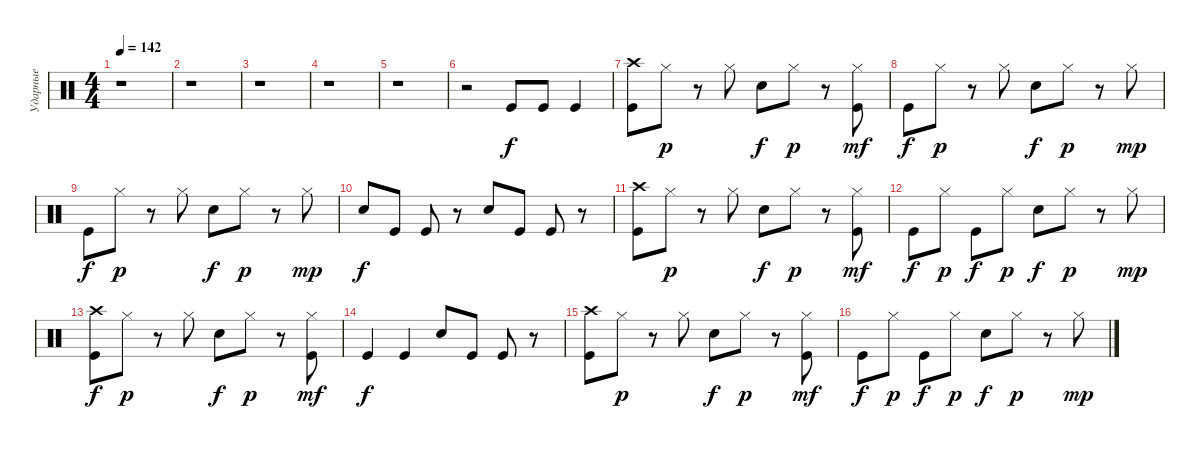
\track ("Ударные" "Ударные") {instrument percussion}
\staff {score}
\articulation defaults
\ts (4 4)
\tempo 142
\clef neutral
\ks c
r.1{dy f} |
r.1 |
r.1 |
r.1 |
r.1 |
r.2 "Kick (hit)".8 "Kick (hit)".8 "Kick (hit)".4 |
("Crash high (hit)" "Kick (hit)").8 "Hi-Hat (closed)".8{dy p} r.8 "Hi-Hat (closed)".8 "Snare (hit) 2".8{dy f} "Hi-Hat (closed)".8{dy p} r.8 ("Hi-Hat (closed)" "Kick (hit)").8{dy mf} |
"Kick (hit)".8{dy f} "Hi-Hat (closed)".8{dy p} r.8 "Hi-Hat (closed)".8 "Snare (hit) 2".8{dy f} "Hi-Hat (closed)".8{dy p} r.8 "Hi-Hat (closed)".8{dy mp} |
"Kick (hit)".8{dy f} "Hi-Hat (closed)".8{dy p} r.8 "Hi-Hat (closed)".8 "Snare (hit) 2".8{dy f} "Hi-Hat (closed)".8{dy p} r.8 "Hi-Hat (closed)".8{dy mp} |
"Electric Snare (hit)".8{dy f} "Kick (hit)".8 "Kick (hit)".8 r.8 "Electric Snare (hit)".8 "Kick (hit)".8 "Kick (hit)".8 r.8 |
("Crash high (hit)" "Kick (hit)").8 "Hi-Hat (closed)".8{dy p} r.8 "Hi-Hat (closed)".8 "Snare (hit) 2".8{dy f} "Hi-Hat (closed)".8{dy p} r.8 ("Hi-Hat (closed)" "Kick (hit)").8{dy mf} |
"Kick (hit)".8{dy f} "Hi-Hat (closed)".8{dy p} "Kick (hit)".8{dy f} "Hi-Hat (closed)".8{dy p} "Snare (hit) 2".8{dy f} "Hi-Hat (closed)".8{dy p} r.8 "Hi-Hat (closed)".8{dy mp} |
("Crash high (hit)" "Kick (hit)").8{dy f} "Hi-Hat (closed)".8{dy p} r.8 "Hi-Hat (closed)".8 "Snare (hit) 2".8{dy f} "Hi-Hat (closed)".8{dy p} r.8 ("Hi-Hat (closed)" "Kick (hit)").8{dy mf} |
"Kick (hit)".4{dy f} "Kick (hit)".4 "Electric Snare (hit)".8 "Kick (hit)".8 "Kick (hit)".8 r.8 |
("Crash high (hit)" "Kick (hit)").8 "Hi-Hat (closed)".8{dy p} r.8 "Hi-Hat (closed)".8 "Snare (hit) 2".8{dy f} "Hi-Hat (closed)".8{dy p} r.8 ("Hi-Hat (closed)" "Kick (hit)").8{dy mf} |
"Kick (hit)".8{dy f} "Hi-Hat (closed)".8{dy p} "Kick (hit)".8{dy f} "Hi-Hat (closed)".8{dy p} "Snare (hit) 2".8{dy f} "Hi-Hat (closed)".8{dy p} r.8 "Hi-Hat (closed)".8{dy mp}
